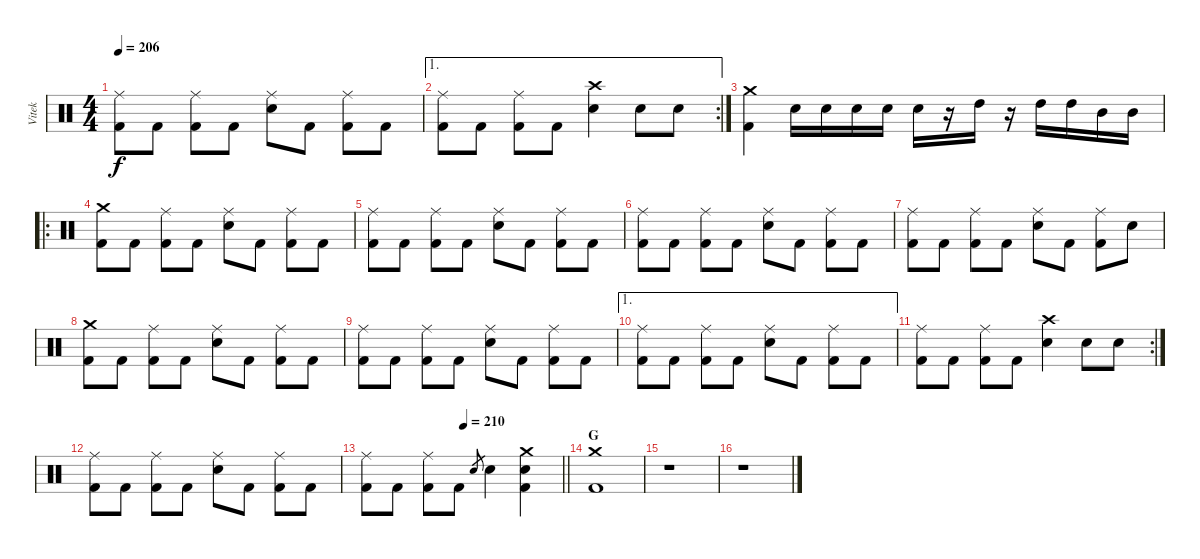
\track ("Vitek" "Vitek") {instrument percussion}
\staff {score}
\articulation defaults
\ts (4 4)
\tempo 206
\clef neutral
\ks c
("Ride (middle)" "Kick (hit) 2").8{dy f} "Kick (hit) 2".8 ("Ride (middle)" "Kick (hit) 2").8 "Kick (hit) 2".8 ("Ride (middle)" "Electric Snare (hit)").8 "Kick (hit) 2".8 ("Ride (middle)" "Kick (hit) 2").8 "Kick (hit) 2".8 |
\ae 1
\rc 2
("Ride (middle)" "Kick (hit) 2").8 "Kick (hit) 2".8 ("Ride (middle)" "Kick (hit) 2").8 "Kick (hit) 2".8 ("Crash high (hit)" "Electric Snare (hit)").4 "Electric Snare (hit)".8 "Electric Snare (hit)".8 |
("Crash medium (hit)" "Kick (hit) 2").4 "Electric Snare (hit)".16 "Electric Snare (hit)".16 "Electric Snare (hit)".16 "Electric Snare (hit)".16 "Electric Snare (hit)".16 r.16 "High Tom (hit)".16 r.16 "High Tom (hit)".16 "High Tom (hit)".16 "Mid Tom (hit)".16 "Mid Tom (hit)".16 |
\ro
("Crash medium (hit)" "Kick (hit) 2").8 "Kick (hit) 2".8 ("Ride (middle)" "Kick (hit) 2").8 "Kick (hit) 2".8 ("Ride (middle)" "Electric Snare (hit)").8 "Kick (hit) 2".8 ("Ride (middle)" "Kick (hit) 2").8 "Kick (hit) 2".8 |
("Ride (middle)" "Kick (hit) 2").8 "Kick (hit) 2".8 ("Ride (middle)" "Kick (hit) 2").8 "Kick (hit) 2".8 ("Ride (middle)" "Electric Snare (hit)").8 "Kick (hit) 2".8 ("Ride (middle)" "Kick (hit) 2").8 "Kick (hit) 2".8 |
("Ride (middle)" "Kick (hit) 2").8 "Kick (hit) 2".8 ("Ride (middle)" "Kick (hit) 2").8 "Kick (hit) 2".8 ("Ride (middle)" "Electric Snare (hit)").8 "Kick (hit) 2".8 ("Ride (middle)" "Kick (hit) 2").8 "Kick (hit) 2".8 |
("Ride (middle)" "Kick (hit) 2").8 "Kick (hit) 2".8 ("Ride (middle)" "Kick (hit) 2").8 "Kick (hit) 2".8 ("Ride (middle)" "Electric Snare (hit)").8 "Kick (hit) 2".8 ("Ride (middle)" "Kick (hit) 2").8 "Electric Snare (hit)".8 |
("Crash medium (hit)" "Kick (hit) 2").8 "Kick (hit) 2".8 ("Ride (middle)" "Kick (hit) 2").8 "Kick (hit) 2".8 ("Ride (middle)" "Electric Snare (hit)").8 "Kick (hit) 2".8 ("Ride (middle)" "Kick (hit) 2").8 "Kick (hit) 2".8 |
("Ride (middle)" "Kick (hit) 2").8 "Kick (hit) 2".8 ("Ride (middle)" "Kick (hit) 2").8 "Kick (hit) 2".8 ("Ride (middle)" "Electric Snare (hit)").8 "Kick (hit) 2".8 ("Ride (middle)" "Kick (hit) 2").8 "Kick (hit) 2".8 |
\ae 1
("Ride (middle)" "Kick (hit) 2").8 "Kick (hit) 2".8 ("Ride (middle)" "Kick (hit) 2").8 "Kick (hit) 2".8 ("Ride (middle)" "Electric Snare (hit)").8 "Kick (hit) 2".8 ("Ride (middle)" "Kick (hit) 2").8 "Kick (hit) 2".8 |
\rc 2
("Ride (middle)" "Kick (hit) 2").8 "Kick (hit) 2".8 ("Ride (middle)" "Kick (hit) 2").8 "Kick (hit) 2".8 ("Crash high (hit)" "Electric Snare (hit)").4 "Electric Snare (hit)".8 "Electric Snare (hit)".8 |
("Ride (middle)" "Kick (hit) 2").8 "Kick (hit) 2".8 ("Ride (middle)" "Kick (hit) 2").8 "Kick (hit) 2".8 ("Ride (middle)" "Electric Snare (hit)").8 "Kick (hit) 2".8 ("Ride (middle)" "Kick (hit) 2").8 "Kick (hit) 2".8 |
\tempo (210 0.5)
\barLineRight lightlight
("Ride (middle)" "Kick (hit) 2").8 "Kick (hit) 2".8 ("Ride (middle)" "Kick (hit) 2").8 "Kick (hit) 2".8 "Electric Snare (hit)".8{gr} "Electric Snare (hit)".4 ("Crash medium (hit)" "Electric Snare (hit)" "Kick (hit) 2").4 |
\section ("" "G")
("Crash medium (hit)" "Kick (hit) 2").1 |
r.1 |
r.1
